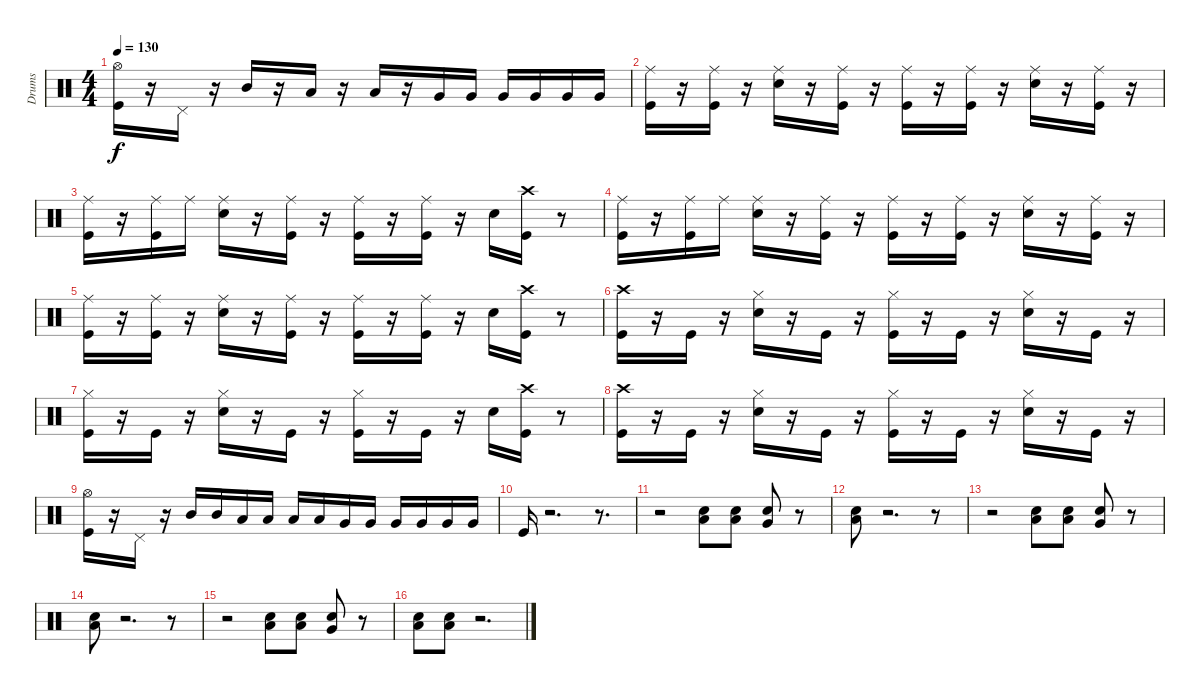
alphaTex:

\track ("Drums" "Drums") {instrument percussion}
\staff {score}
\articulation defaults
\ts (4 4)
\tempo 130
\clef neutral
\ks c
("Hi-Hat (open)" "Kick (hit)").16{dy f} r.16 "Pedal Hi-Hat (hit)".16 r.16 "Mid Tom (hit)".16 r.16 "Low Tom (hit)".16 r.16 "Low Tom (hit)".16 r.16 "Very Low Tom (hit)".16 "Very Low Tom (hit)".16 "Very Low Tom (hit)".16 "Very Low Tom (hit)".16 "Very Low Tom (hit)".16 "Very Low Tom (hit)".16 |
("Ride (middle)" "Kick (hit)").16 r.16 ("Ride (middle)" "Kick (hit)").16 r.16 ("Snare (hit) 2" "Ride (middle)").16 r.16 ("Kick (hit)" "Ride (middle)").16 r.16 ("Kick (hit)" "Ride (middle)").16 r.16 ("Kick (hit)" "Ride (middle)").16 r.16 ("Snare (hit) 2" "Ride (middle)").16 r.16 ("Kick (hit)" "Ride (middle)").16 r.16 |
("Kick (hit)" "Ride (middle)").16 r.16 ("Kick (hit)" "Ride (middle)").16 "Ride (middle)".16 ("Ride (middle)" "Snare (hit) 2").16 r.16 ("Kick (hit)" "Ride (middle)").16 r.16 ("Kick (hit)" "Ride (middle)").16 r.16 ("Kick (hit)" "Ride (middle)").16 r.16 "Snare (hit) 2".16 ("Crash high (hit)" "Kick (hit)").16 r.8 |
("Ride (middle)" "Kick (hit)").16 r.16 ("Ride (middle)" "Kick (hit)").16 "Ride (middle)".16 ("Snare (hit) 2" "Ride (middle)").16 r.16 ("Kick (hit)" "Ride (middle)").16 r.16 ("Kick (hit)" "Ride (middle)").16 r.16 ("Kick (hit)" "Ride (middle)").16 r.16 ("Snare (hit) 2" "Ride (middle)").16 r.16 ("Kick (hit)" "Ride (middle)").16 r.16 |
("Kick (hit)" "Ride (middle)").16 r.16 ("Kick (hit)" "Ride (middle)").16 r.16 ("Ride (middle)" "Snare (hit) 2").16 r.16 ("Kick (hit)" "Ride (middle)").16 r.16 ("Kick (hit)" "Ride (middle)").16 r.16 ("Kick (hit)" "Ride (middle)").16 r.16 "Snare (hit) 2".16 ("Crash high (hit)" "Kick (hit)").16 r.8 |
("Crash high (hit)" "Kick (hit)").16 r.16 "Kick (hit)".16 r.16 ("Hi-Hat (closed)" "Snare (hit) 2").16 r.16 "Kick (hit)".16 r.16 ("Kick (hit)" "Hi-Hat (closed)").16 r.16 "Kick (hit)".16 r.16 ("Snare (hit) 2" "Hi-Hat (closed)").16 r.16 "Kick (hit)".16 r.16 |
("Kick (hit)" "Hi-Hat (closed)").16 r.16 "Kick (hit)".16 r.16 ("Snare (hit) 2" "Hi-Hat (closed)").16 r.16 "Kick (hit)".16 r.16 ("Hi-Hat (closed)" "Kick (hit)").16 r.16 "Kick (hit)".16 r.16 "Snare (hit) 2".16 ("Crash high (hit)" "Kick (hit)").16 r.8 |
("Crash high (hit)" "Kick (hit)").16 r.16 "Kick (hit)".16 r.16 ("Hi-Hat (closed)" "Snare (hit) 2").16 r.16 "Kick (hit)".16 r.16 ("Kick (hit)" "Hi-Hat (closed)").16 r.16 "Kick (hit)".16 r.16 ("Snare (hit) 2" "Hi-Hat (closed)").16 r.16 "Kick (hit)".16 r.16 |
("Hi-Hat (open)" "Kick (hit)").16 r.16 "Pedal Hi-Hat (hit)".16 r.16 "Mid Tom (hit)".16 "Mid Tom (hit)".16 "Low Tom (hit)".16 "Low Tom (hit)".16 "Low Tom (hit)".16 "Low Tom (hit)".16 "Very Low Tom (hit)".16 "Very Low Tom (hit)".16 "Very Low Tom (hit)".16 "Very Low Tom (hit)".16 "Very Low Tom (hit)".16 "Very Low Tom (hit)".16 |
"Kick (hit)".16 r.2{d} r.8{d} |
r.2 ("Low Tom (hit)" "Snare (hit) 2").8 ("Low Tom (hit)" "Snare (hit) 2").8 ("Very Low Tom (hit)" "Snare (hit) 2").8 r.8 |
("Low Floor Tom (hit)" "Snare (hit) 2").8 r.2{d} r.8 |
r.2 ("Low Tom (hit)" "Snare (hit) 2").8 ("Low Tom (hit)" "Snare (hit) 2").8 ("Very Low Tom (hit)" "Snare (hit) 2").8 r.8 |
("Low Floor Tom (hit)" "Snare (hit) 2").8 r.2{d} r.8 |
r.2 ("Low Tom (hit)" "Snare (hit) 2").8 ("Low Tom (hit)" "Snare (hit) 2").8 ("Very Low Tom (hit)" "Snare (hit) 2").8 r.8 |
("Low Floor Tom (hit)" "Snare (hit) 2").8 ("Low Floor Tom (hit)" "Snare (hit) 2").8 r.2{d}
